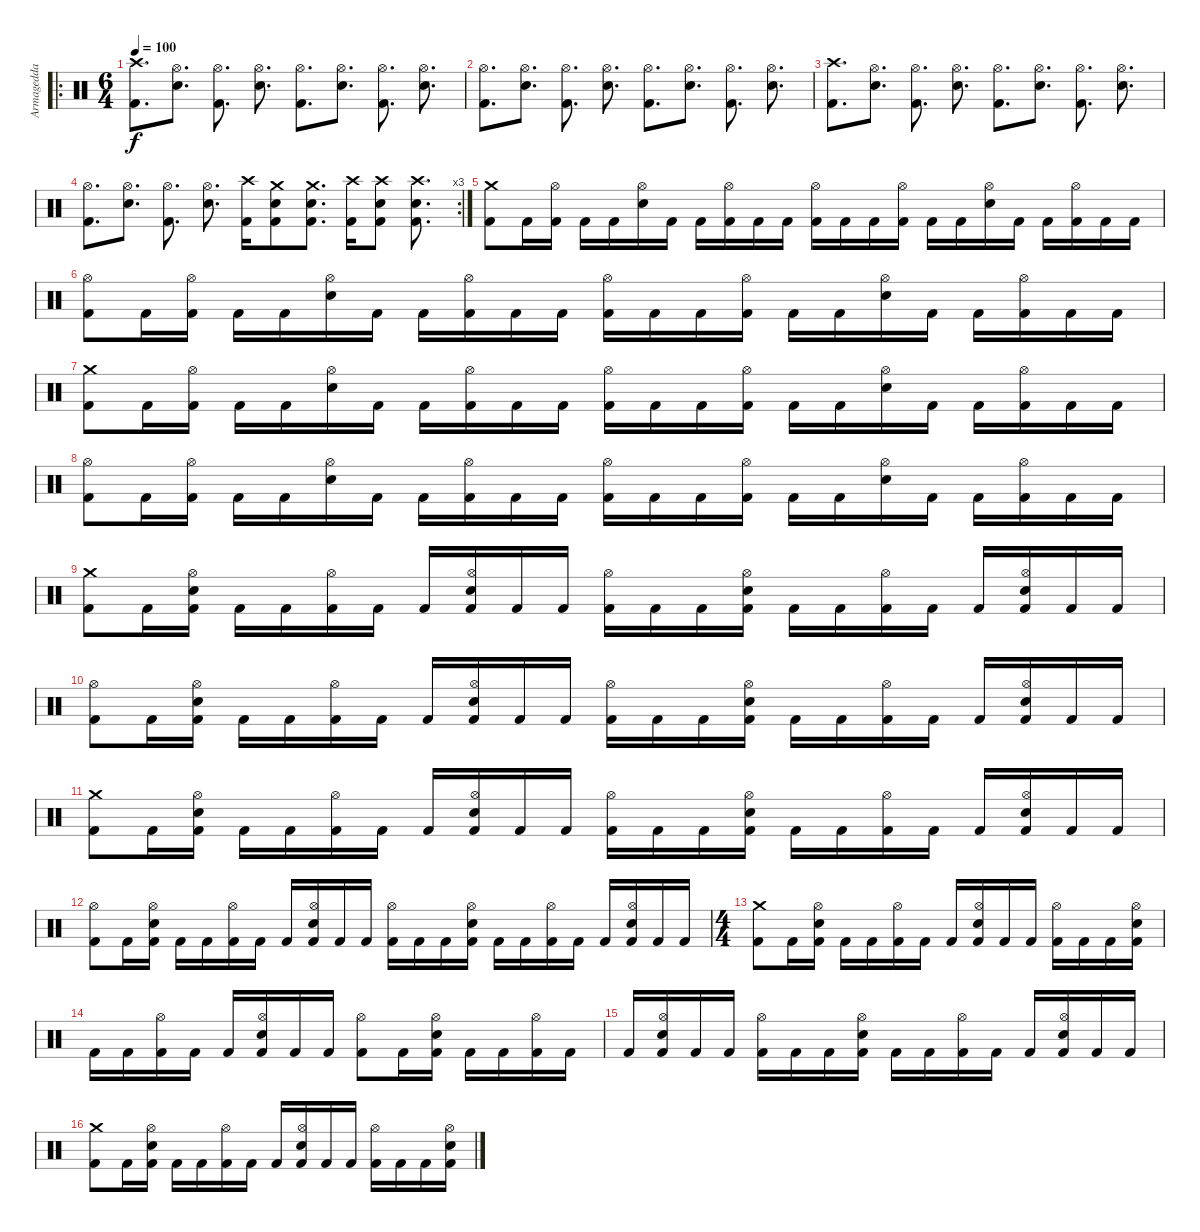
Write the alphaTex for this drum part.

\track ("Armagedda" "Armagedda") {instrument percussion}
\staff {score}
\articulation defaults
\ro
\ts (6 4)
\tempo 100
\clef neutral
\ks c
("Crash high (hit)" "Kick (hit) 2").8{d dy f} ("Hi-Hat (open)" "Snare (hit) 2").8{d} ("Hi-Hat (open)" "Kick (hit) 2").8{d} ("Hi-Hat (open)" "Snare (hit) 2").8{d} ("Hi-Hat (open)" "Kick (hit) 2").8{d} ("Hi-Hat (open)" "Snare (hit) 2").8{d} ("Hi-Hat (open)" "Kick (hit) 2").8{d} ("Hi-Hat (open)" "Snare (hit) 2").8{d} |
("Hi-Hat (open)" "Kick (hit) 2").8{d} ("Hi-Hat (open)" "Snare (hit) 2").8{d} ("Hi-Hat (open)" "Kick (hit) 2").8{d} ("Hi-Hat (open)" "Snare (hit) 2").8{d} ("Hi-Hat (open)" "Kick (hit) 2").8{d} ("Hi-Hat (open)" "Snare (hit) 2").8{d} ("Hi-Hat (open)" "Kick (hit) 2").8{d} ("Hi-Hat (open)" "Snare (hit) 2").8{d} |
("Crash high (hit)" "Kick (hit) 2").8{d} ("Hi-Hat (open)" "Snare (hit) 2").8{d} ("Hi-Hat (open)" "Kick (hit) 2").8{d} ("Hi-Hat (open)" "Snare (hit) 2").8{d} ("Hi-Hat (open)" "Kick (hit) 2").8{d} ("Hi-Hat (open)" "Snare (hit) 2").8{d} ("Hi-Hat (open)" "Kick (hit) 2").8{d} ("Hi-Hat (open)" "Snare (hit) 2").8{d} |
\rc 3
("Hi-Hat (open)" "Kick (hit) 2").8{d} ("Hi-Hat (open)" "Snare (hit) 2").8{d} ("Hi-Hat (open)" "Kick (hit) 2").8{d} ("Hi-Hat (open)" "Snare (hit) 2").8{d} ("Crash high (hit)" "Kick (hit) 2").16 ("Crash medium (hit)" "Snare (hit) 2" "Kick (hit) 2").8 ("Crash medium (hit)" "Snare (hit) 2" "Kick (hit) 2").8{d} ("Crash high (hit)" "Kick (hit) 2").16 ("Crash high (hit)" "Snare (hit) 2" "Kick (hit) 2").8 ("Crash high (hit)" "Snare (hit) 2" "Kick (hit) 2").8{d} |
("Crash medium (hit)" "Kick (hit) 2").8 "Kick (hit) 2".16 ("Hi-Hat (open)" "Kick (hit) 2").16 "Kick (hit) 2".16 "Kick (hit) 2".16 ("Hi-Hat (open)" "Snare (hit) 2").16 "Kick (hit) 2".16 "Kick (hit) 2".16 ("Hi-Hat (open)" "Kick (hit) 2").16 "Kick (hit) 2".16 "Kick (hit) 2".16 ("Hi-Hat (open)" "Kick (hit) 2").16 "Kick (hit) 2".16 "Kick (hit) 2".16 ("Hi-Hat (open)" "Kick (hit) 2").16 "Kick (hit) 2".16 "Kick (hit) 2".16 ("Hi-Hat (open)" "Snare (hit) 2").16 "Kick (hit) 2".16 "Kick (hit) 2".16 ("Hi-Hat (open)" "Kick (hit) 2").16 "Kick (hit) 2".16 "Kick (hit) 2".16 |
("Hi-Hat (open)" "Kick (hit) 2").8 "Kick (hit) 2".16 ("Hi-Hat (open)" "Kick (hit) 2").16 "Kick (hit) 2".16 "Kick (hit) 2".16 ("Hi-Hat (open)" "Snare (hit) 2").16 "Kick (hit) 2".16 "Kick (hit) 2".16 ("Hi-Hat (open)" "Kick (hit) 2").16 "Kick (hit) 2".16 "Kick (hit) 2".16 ("Hi-Hat (open)" "Kick (hit) 2").16 "Kick (hit) 2".16 "Kick (hit) 2".16 ("Hi-Hat (open)" "Kick (hit) 2").16 "Kick (hit) 2".16 "Kick (hit) 2".16 ("Hi-Hat (open)" "Snare (hit) 2").16 "Kick (hit) 2".16 "Kick (hit) 2".16 ("Hi-Hat (open)" "Kick (hit) 2").16 "Kick (hit) 2".16 "Kick (hit) 2".16 |
("Crash medium (hit)" "Kick (hit) 2").8 "Kick (hit) 2".16 ("Hi-Hat (open)" "Kick (hit) 2").16 "Kick (hit) 2".16 "Kick (hit) 2".16 ("Hi-Hat (open)" "Snare (hit) 2").16 "Kick (hit) 2".16 "Kick (hit) 2".16 ("Hi-Hat (open)" "Kick (hit) 2").16 "Kick (hit) 2".16 "Kick (hit) 2".16 ("Hi-Hat (open)" "Kick (hit) 2").16 "Kick (hit) 2".16 "Kick (hit) 2".16 ("Hi-Hat (open)" "Kick (hit) 2").16 "Kick (hit) 2".16 "Kick (hit) 2".16 ("Hi-Hat (open)" "Snare (hit) 2").16 "Kick (hit) 2".16 "Kick (hit) 2".16 ("Hi-Hat (open)" "Kick (hit) 2").16 "Kick (hit) 2".16 "Kick (hit) 2".16 |
("Hi-Hat (open)" "Kick (hit) 2").8 "Kick (hit) 2".16 ("Hi-Hat (open)" "Kick (hit) 2").16 "Kick (hit) 2".16 "Kick (hit) 2".16 ("Hi-Hat (open)" "Snare (hit) 2").16 "Kick (hit) 2".16 "Kick (hit) 2".16 ("Hi-Hat (open)" "Kick (hit) 2").16 "Kick (hit) 2".16 "Kick (hit) 2".16 ("Hi-Hat (open)" "Kick (hit) 2").16 "Kick (hit) 2".16 "Kick (hit) 2".16 ("Hi-Hat (open)" "Kick (hit) 2").16 "Kick (hit) 2".16 "Kick (hit) 2".16 ("Hi-Hat (open)" "Snare (hit) 2").16 "Kick (hit) 2".16 "Kick (hit) 2".16 ("Hi-Hat (open)" "Kick (hit) 2").16 "Kick (hit) 2".16 "Kick (hit) 2".16 |
("Crash medium (hit)" "Kick (hit) 2").8 "Kick (hit) 2".16 ("Hi-Hat (open)" "Snare (hit) 2" "Kick (hit) 2").16 "Kick (hit) 2".16 "Kick (hit) 2".16 ("Hi-Hat (open)" "Kick (hit) 2").16 "Kick (hit) 2".16 "Kick (hit) 2".16 ("Hi-Hat (open)" "Snare (hit) 2" "Kick (hit) 2").16 "Kick (hit) 2".16 "Kick (hit) 2".16 ("Hi-Hat (open)" "Kick (hit) 2").16 "Kick (hit) 2".16 "Kick (hit) 2".16 ("Hi-Hat (open)" "Snare (hit) 2" "Kick (hit) 2").16 "Kick (hit) 2".16 "Kick (hit) 2".16 ("Hi-Hat (open)" "Kick (hit) 2").16 "Kick (hit) 2".16 "Kick (hit) 2".16 ("Hi-Hat (open)" "Snare (hit) 2" "Kick (hit) 2").16 "Kick (hit) 2".16 "Kick (hit) 2".16 |
("Hi-Hat (open)" "Kick (hit) 2").8 "Kick (hit) 2".16 ("Hi-Hat (open)" "Snare (hit) 2" "Kick (hit) 2").16 "Kick (hit) 2".16 "Kick (hit) 2".16 ("Hi-Hat (open)" "Kick (hit) 2").16 "Kick (hit) 2".16 "Kick (hit) 2".16 ("Hi-Hat (open)" "Snare (hit) 2" "Kick (hit) 2").16 "Kick (hit) 2".16 "Kick (hit) 2".16 ("Hi-Hat (open)" "Kick (hit) 2").16 "Kick (hit) 2".16 "Kick (hit) 2".16 ("Hi-Hat (open)" "Snare (hit) 2" "Kick (hit) 2").16 "Kick (hit) 2".16 "Kick (hit) 2".16 ("Hi-Hat (open)" "Kick (hit) 2").16 "Kick (hit) 2".16 "Kick (hit) 2".16 ("Hi-Hat (open)" "Snare (hit) 2" "Kick (hit) 2").16 "Kick (hit) 2".16 "Kick (hit) 2".16 |
("Crash medium (hit)" "Kick (hit) 2").8 "Kick (hit) 2".16 ("Hi-Hat (open)" "Snare (hit) 2" "Kick (hit) 2").16 "Kick (hit) 2".16 "Kick (hit) 2".16 ("Hi-Hat (open)" "Kick (hit) 2").16 "Kick (hit) 2".16 "Kick (hit) 2".16 ("Hi-Hat (open)" "Snare (hit) 2" "Kick (hit) 2").16 "Kick (hit) 2".16 "Kick (hit) 2".16 ("Hi-Hat (open)" "Kick (hit) 2").16 "Kick (hit) 2".16 "Kick (hit) 2".16 ("Hi-Hat (open)" "Snare (hit) 2" "Kick (hit) 2").16 "Kick (hit) 2".16 "Kick (hit) 2".16 ("Hi-Hat (open)" "Kick (hit) 2").16 "Kick (hit) 2".16 "Kick (hit) 2".16 ("Hi-Hat (open)" "Snare (hit) 2" "Kick (hit) 2").16 "Kick (hit) 2".16 "Kick (hit) 2".16 |
("Hi-Hat (open)" "Kick (hit) 2").8 "Kick (hit) 2".16 ("Hi-Hat (open)" "Snare (hit) 2" "Kick (hit) 2").16 "Kick (hit) 2".16 "Kick (hit) 2".16 ("Hi-Hat (open)" "Kick (hit) 2").16 "Kick (hit) 2".16 "Kick (hit) 2".16 ("Hi-Hat (open)" "Snare (hit) 2" "Kick (hit) 2").16 "Kick (hit) 2".16 "Kick (hit) 2".16 ("Hi-Hat (open)" "Kick (hit) 2").16 "Kick (hit) 2".16 "Kick (hit) 2".16 ("Hi-Hat (open)" "Snare (hit) 2" "Kick (hit) 2").16 "Kick (hit) 2".16 "Kick (hit) 2".16 ("Hi-Hat (open)" "Kick (hit) 2").16 "Kick (hit) 2".16 "Kick (hit) 2".16 ("Hi-Hat (open)" "Snare (hit) 2" "Kick (hit) 2").16 "Kick (hit) 2".16 "Kick (hit) 2".16 |
\ts (4 4)
("Crash medium (hit)" "Kick (hit) 2").8 "Kick (hit) 2".16 ("Hi-Hat (open)" "Snare (hit) 2" "Kick (hit) 2").16 "Kick (hit) 2".16 "Kick (hit) 2".16 ("Hi-Hat (open)" "Kick (hit) 2").16 "Kick (hit) 2".16 "Kick (hit) 2".16 ("Hi-Hat (open)" "Snare (hit) 2" "Kick (hit) 2").16 "Kick (hit) 2".16 "Kick (hit) 2".16 ("Hi-Hat (open)" "Kick (hit) 2").16 "Kick (hit) 2".16 "Kick (hit) 2".16 ("Hi-Hat (open)" "Snare (hit) 2" "Kick (hit) 2").16 |
"Kick (hit) 2".16 "Kick (hit) 2".16 ("Hi-Hat (open)" "Kick (hit) 2").16 "Kick (hit) 2".16 "Kick (hit) 2".16 ("Hi-Hat (open)" "Snare (hit) 2" "Kick (hit) 2").16 "Kick (hit) 2".16 "Kick (hit) 2".16 ("Hi-Hat (open)" "Kick (hit) 2").8 "Kick (hit) 2".16 ("Hi-Hat (open)" "Snare (hit) 2" "Kick (hit) 2").16 "Kick (hit) 2".16 "Kick (hit) 2".16 ("Hi-Hat (open)" "Kick (hit) 2").16 "Kick (hit) 2".16 |
"Kick (hit) 2".16 ("Hi-Hat (open)" "Snare (hit) 2" "Kick (hit) 2").16 "Kick (hit) 2".16 "Kick (hit) 2".16 ("Hi-Hat (open)" "Kick (hit) 2").16 "Kick (hit) 2".16 "Kick (hit) 2".16 ("Hi-Hat (open)" "Snare (hit) 2" "Kick (hit) 2").16 "Kick (hit) 2".16 "Kick (hit) 2".16 ("Hi-Hat (open)" "Kick (hit) 2").16 "Kick (hit) 2".16 "Kick (hit) 2".16 ("Hi-Hat (open)" "Snare (hit) 2" "Kick (hit) 2").16 "Kick (hit) 2".16 "Kick (hit) 2".16 |
("Crash medium (hit)" "Kick (hit) 2").8 "Kick (hit) 2".16 ("Hi-Hat (open)" "Snare (hit) 2" "Kick (hit) 2").16 "Kick (hit) 2".16 "Kick (hit) 2".16 ("Hi-Hat (open)" "Kick (hit) 2").16 "Kick (hit) 2".16 "Kick (hit) 2".16 ("Hi-Hat (open)" "Snare (hit) 2" "Kick (hit) 2").16 "Kick (hit) 2".16 "Kick (hit) 2".16 ("Hi-Hat (open)" "Kick (hit) 2").16 "Kick (hit) 2".16 "Kick (hit) 2".16 ("Hi-Hat (open)" "Snare (hit) 2" "Kick (hit) 2").16
